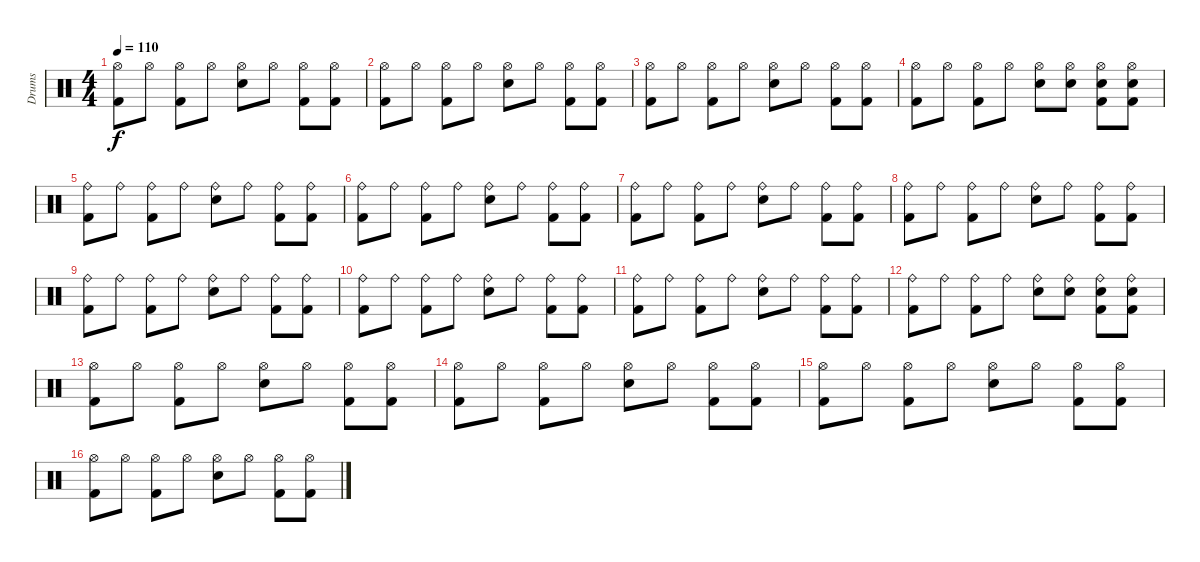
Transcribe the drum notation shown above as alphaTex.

\track ("Drums" "Drums") {instrument percussion}
\staff {score}
\articulation defaults
\ts (4 4)
\tempo 110
\clef neutral
\ks c
("Hi-Hat (open)" "Kick (hit) 2").8{dy f} "Hi-Hat (open)".8 ("Hi-Hat (open)" "Kick (hit) 2").8 "Hi-Hat (open)".8 ("Hi-Hat (open)" "Electric Snare (hit)").8 "Hi-Hat (open)".8 ("Hi-Hat (open)" "Kick (hit) 2").8 ("Hi-Hat (open)" "Kick (hit) 2").8 |
("Hi-Hat (open)" "Kick (hit) 2").8 "Hi-Hat (open)".8 ("Hi-Hat (open)" "Kick (hit) 2").8 "Hi-Hat (open)".8 ("Hi-Hat (open)" "Electric Snare (hit)").8 "Hi-Hat (open)".8 ("Hi-Hat (open)" "Kick (hit) 2").8 ("Hi-Hat (open)" "Kick (hit) 2").8 |
("Hi-Hat (open)" "Kick (hit) 2").8 "Hi-Hat (open)".8 ("Hi-Hat (open)" "Kick (hit) 2").8 "Hi-Hat (open)".8 ("Hi-Hat (open)" "Electric Snare (hit)").8 "Hi-Hat (open)".8 ("Hi-Hat (open)" "Kick (hit) 2").8 ("Hi-Hat (open)" "Kick (hit) 2").8 |
("Hi-Hat (open)" "Kick (hit) 2").8 "Hi-Hat (open)".8 ("Hi-Hat (open)" "Kick (hit) 2").8 "Hi-Hat (open)".8 ("Hi-Hat (open)" "Electric Snare (hit)").8 ("Hi-Hat (open)" "Electric Snare (hit)").8 ("Hi-Hat (open)" "Electric Snare (hit)" "Kick (hit) 2").8 ("Hi-Hat (open)" "Electric Snare (hit)" "Kick (hit) 2").8 |
("Ride (bell)" "Kick (hit) 2").8 "Ride (bell)".8 ("Ride (bell)" "Kick (hit) 2").8 "Ride (bell)".8 ("Ride (bell)" "Electric Snare (hit)").8 "Ride (bell)".8 ("Ride (bell)" "Kick (hit) 2").8 ("Ride (bell)" "Kick (hit) 2").8 |
("Ride (bell)" "Kick (hit) 2").8 "Ride (bell)".8 ("Ride (bell)" "Kick (hit) 2").8 "Ride (bell)".8 ("Ride (bell)" "Electric Snare (hit)").8 "Ride (bell)".8 ("Ride (bell)" "Kick (hit) 2").8 ("Ride (bell)" "Kick (hit) 2").8 |
("Ride (bell)" "Kick (hit) 2").8 "Ride (bell)".8 ("Ride (bell)" "Kick (hit) 2").8 "Ride (bell)".8 ("Ride (bell)" "Electric Snare (hit)").8 "Ride (bell)".8 ("Ride (bell)" "Kick (hit) 2").8 ("Ride (bell)" "Kick (hit) 2").8 |
("Ride (bell)" "Kick (hit) 2").8 "Ride (bell)".8 ("Ride (bell)" "Kick (hit) 2").8 "Ride (bell)".8 ("Ride (bell)" "Electric Snare (hit)").8 "Ride (bell)".8 ("Ride (bell)" "Kick (hit) 2").8 ("Ride (bell)" "Kick (hit) 2").8 |
("Ride (bell)" "Kick (hit) 2").8 "Ride (bell)".8 ("Ride (bell)" "Kick (hit) 2").8 "Ride (bell)".8 ("Ride (bell)" "Electric Snare (hit)").8 "Ride (bell)".8 ("Ride (bell)" "Kick (hit) 2").8 ("Ride (bell)" "Kick (hit) 2").8 |
("Ride (bell)" "Kick (hit) 2").8 "Ride (bell)".8 ("Ride (bell)" "Kick (hit) 2").8 "Ride (bell)".8 ("Ride (bell)" "Electric Snare (hit)").8 "Ride (bell)".8 ("Ride (bell)" "Kick (hit) 2").8 ("Ride (bell)" "Kick (hit) 2").8 |
("Ride (bell)" "Kick (hit) 2").8 "Ride (bell)".8 ("Ride (bell)" "Kick (hit) 2").8 "Ride (bell)".8 ("Ride (bell)" "Electric Snare (hit)").8 "Ride (bell)".8 ("Ride (bell)" "Kick (hit) 2").8 ("Ride (bell)" "Kick (hit) 2").8 |
("Ride (bell)" "Kick (hit) 2").8 "Ride (bell)".8 ("Ride (bell)" "Kick (hit) 2").8 "Ride (bell)".8 ("Ride (bell)" "Electric Snare (hit)").8 ("Ride (bell)" "Electric Snare (hit)").8 ("Ride (bell)" "Electric Snare (hit)" "Kick (hit) 2").8 ("Ride (bell)" "Electric Snare (hit)" "Kick (hit) 2").8 |
("Hi-Hat (open)" "Kick (hit) 2").8 "Hi-Hat (open)".8 ("Hi-Hat (open)" "Kick (hit) 2").8 "Hi-Hat (open)".8 ("Hi-Hat (open)" "Electric Snare (hit)").8 "Hi-Hat (open)".8 ("Hi-Hat (open)" "Kick (hit) 2").8 ("Hi-Hat (open)" "Kick (hit) 2").8 |
("Hi-Hat (open)" "Kick (hit) 2").8 "Hi-Hat (open)".8 ("Hi-Hat (open)" "Kick (hit) 2").8 "Hi-Hat (open)".8 ("Hi-Hat (open)" "Electric Snare (hit)").8 "Hi-Hat (open)".8 ("Hi-Hat (open)" "Kick (hit) 2").8 ("Hi-Hat (open)" "Kick (hit) 2").8 |
("Hi-Hat (open)" "Kick (hit) 2").8 "Hi-Hat (open)".8 ("Hi-Hat (open)" "Kick (hit) 2").8 "Hi-Hat (open)".8 ("Hi-Hat (open)" "Electric Snare (hit)").8 "Hi-Hat (open)".8 ("Hi-Hat (open)" "Kick (hit) 2").8 ("Hi-Hat (open)" "Kick (hit) 2").8 |
("Hi-Hat (open)" "Kick (hit) 2").8 "Hi-Hat (open)".8 ("Hi-Hat (open)" "Kick (hit) 2").8 "Hi-Hat (open)".8 ("Hi-Hat (open)" "Electric Snare (hit)").8 "Hi-Hat (open)".8 ("Hi-Hat (open)" "Kick (hit) 2").8 ("Hi-Hat (open)" "Kick (hit) 2").8
